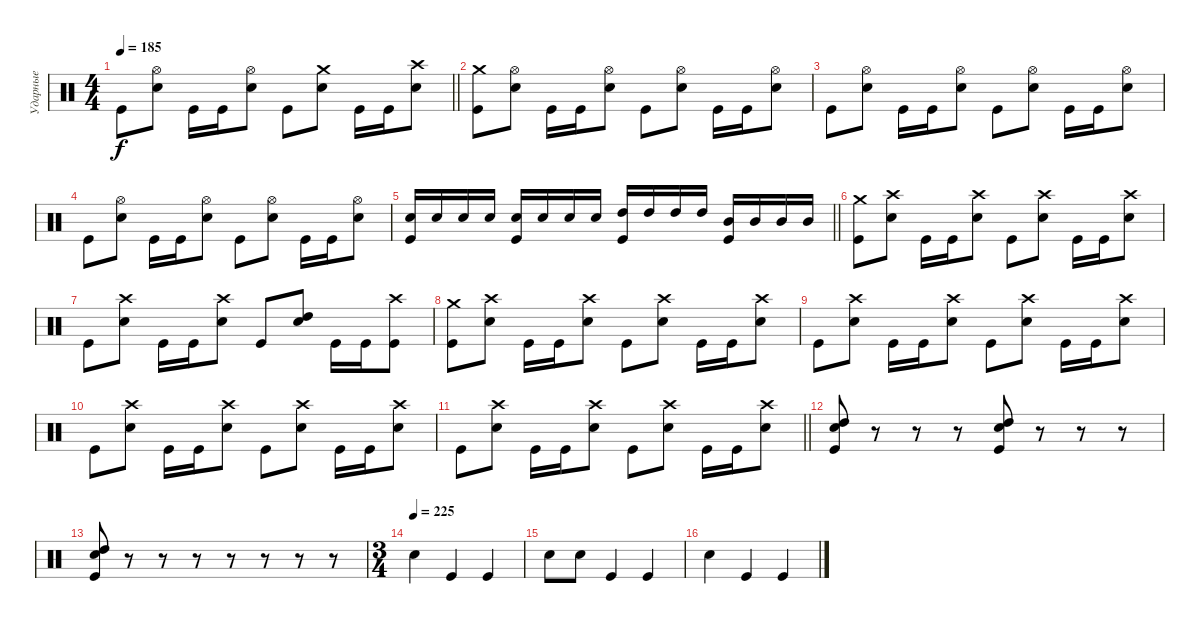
\track ("Ударные" "Ударные") {instrument percussion}
\staff {score}
\articulation defaults
\ts (4 4)
\tempo 185
\clef neutral
\barLineRight lightlight
\ks c "Kick (hit)".8{dy f}
("Hi-Hat (open)" "Electric Snare (hit)").8 "Kick (hit)".16 "Kick (hit)".16 ("Hi-Hat (open)" "Electric Snare (hit)").8 "Kick (hit)".8 ("Crash medium (hit)" "Electric Snare (hit)").8 "Kick (hit)".16 "Kick (hit)".16 ("Crash high (hit)" "Electric Snare (hit)").8 |
\section ("" " ")
("Crash medium (hit)" "Kick (hit)").8 ("Hi-Hat (open)" "Electric Snare (hit)").8 "Kick (hit)".16 "Kick (hit)".16 ("Hi-Hat (open)" "Electric Snare (hit)").8 "Kick (hit)".8 ("Hi-Hat (open)" "Electric Snare (hit)").8 "Kick (hit)".16 "Kick (hit)".16 ("Hi-Hat (open)" "Electric Snare (hit)").8 |
"Kick (hit)".8 ("Hi-Hat (open)" "Electric Snare (hit)").8 "Kick (hit)".16 "Kick (hit)".16 ("Hi-Hat (open)" "Electric Snare (hit)").8 "Kick (hit)".8 ("Hi-Hat (open)" "Electric Snare (hit)").8 "Kick (hit)".16 "Kick (hit)".16 ("Hi-Hat (open)" "Electric Snare (hit)").8 |
"Kick (hit)".8 ("Hi-Hat (open)" "Electric Snare (hit)").8 "Kick (hit)".16 "Kick (hit)".16 ("Hi-Hat (open)" "Electric Snare (hit)").8 "Kick (hit)".8 ("Hi-Hat (open)" "Electric Snare (hit)").8 "Kick (hit)".16 "Kick (hit)".16 ("Hi-Hat (open)" "Electric Snare (hit)").8 |
\barLineRight lightlight
("Electric Snare (hit)" "Kick (hit)").16 "Electric Snare (hit)".16 "Electric Snare (hit)".16 "Electric Snare (hit)".16 ("Electric Snare (hit)" "Kick (hit)").16 "Electric Snare (hit)".16 "Electric Snare (hit)".16 "Electric Snare (hit)".16 ("High Tom (hit)" "Kick (hit)").16 "High Tom (hit)".16 "High Tom (hit)".16 "High Tom (hit)".16 ("Mid Tom (hit)" "Kick (hit)").16 "Mid Tom (hit)".16 "Mid Tom (hit)".16 "Mid Tom (hit)".16 |
\section ("" " ")
("Crash medium (hit)" "Kick (hit)").8 ("Crash high (hit)" "Electric Snare (hit)").8 "Kick (hit)".16 "Kick (hit)".16 ("Crash high (hit)" "Electric Snare (hit)").8 "Kick (hit)".8 ("Crash high (hit)" "Electric Snare (hit)").8 "Kick (hit)".16 "Kick (hit)".16 ("Crash high (hit)" "Electric Snare (hit)").8 |
"Kick (hit)".8 ("Crash high (hit)" "Electric Snare (hit)").8 "Kick (hit)".16 "Kick (hit)".16 ("Crash high (hit)" "Electric Snare (hit)").8 "Kick (hit)".8 ("High Tom (hit)" "Electric Snare (hit)").8 "Kick (hit)".16 "Kick (hit)".16 ("Crash high (hit)" "Kick (hit)").8 |
("Crash medium (hit)" "Kick (hit)").8 ("Crash high (hit)" "Electric Snare (hit)").8 "Kick (hit)".16 "Kick (hit)".16 ("Crash high (hit)" "Electric Snare (hit)").8 "Kick (hit)".8 ("Crash high (hit)" "Electric Snare (hit)").8 "Kick (hit)".16 "Kick (hit)".16 ("Crash high (hit)" "Electric Snare (hit)").8 |
"Kick (hit)".8 ("Crash high (hit)" "Electric Snare (hit)").8 "Kick (hit)".16 "Kick (hit)".16 ("Crash high (hit)" "Electric Snare (hit)").8 "Kick (hit)".8 ("Crash high (hit)" "Electric Snare (hit)").8 "Kick (hit)".16 "Kick (hit)".16 ("Crash high (hit)" "Electric Snare (hit)").8 |
"Kick (hit)".8 ("Crash high (hit)" "Electric Snare (hit)").8 "Kick (hit)".16 "Kick (hit)".16 ("Crash high (hit)" "Electric Snare (hit)").8 "Kick (hit)".8 ("Crash high (hit)" "Electric Snare (hit)").8 "Kick (hit)".16 "Kick (hit)".16 ("Crash high (hit)" "Electric Snare (hit)").8 |
\barLineRight lightlight "Kick (hit)".8
("Crash high (hit)" "Electric Snare (hit)").8 "Kick (hit)".16 "Kick (hit)".16 ("Crash high (hit)" "Electric Snare (hit)").8 "Kick (hit)".8 ("Crash high (hit)" "Electric Snare (hit)").8 "Kick (hit)".16 "Kick (hit)".16 ("Crash high (hit)" "Electric Snare (hit)").8 |
\section ("" " ")
("High Tom (hit)" "Electric Snare (hit)" "Kick (hit)").8 r.8 r.8 r.8 ("High Tom (hit)" "Electric Snare (hit)" "Kick (hit)").8 r.8 r.8 r.8 |
("High Tom (hit)" "Electric Snare (hit)" "Kick (hit)").8 r.8 r.8 r.8 r.8 r.8 r.8 r.8 |
\ts (3 4)
\tempo (225)
"Electric Snare (hit)".4 "Kick (hit)".4 "Kick (hit)".4 |
"Electric Snare (hit)".8 "Electric Snare (hit)".8 "Kick (hit)".4 "Kick (hit)".4 |
"Electric Snare (hit)".4 "Kick (hit)".4 "Kick (hit)".4
